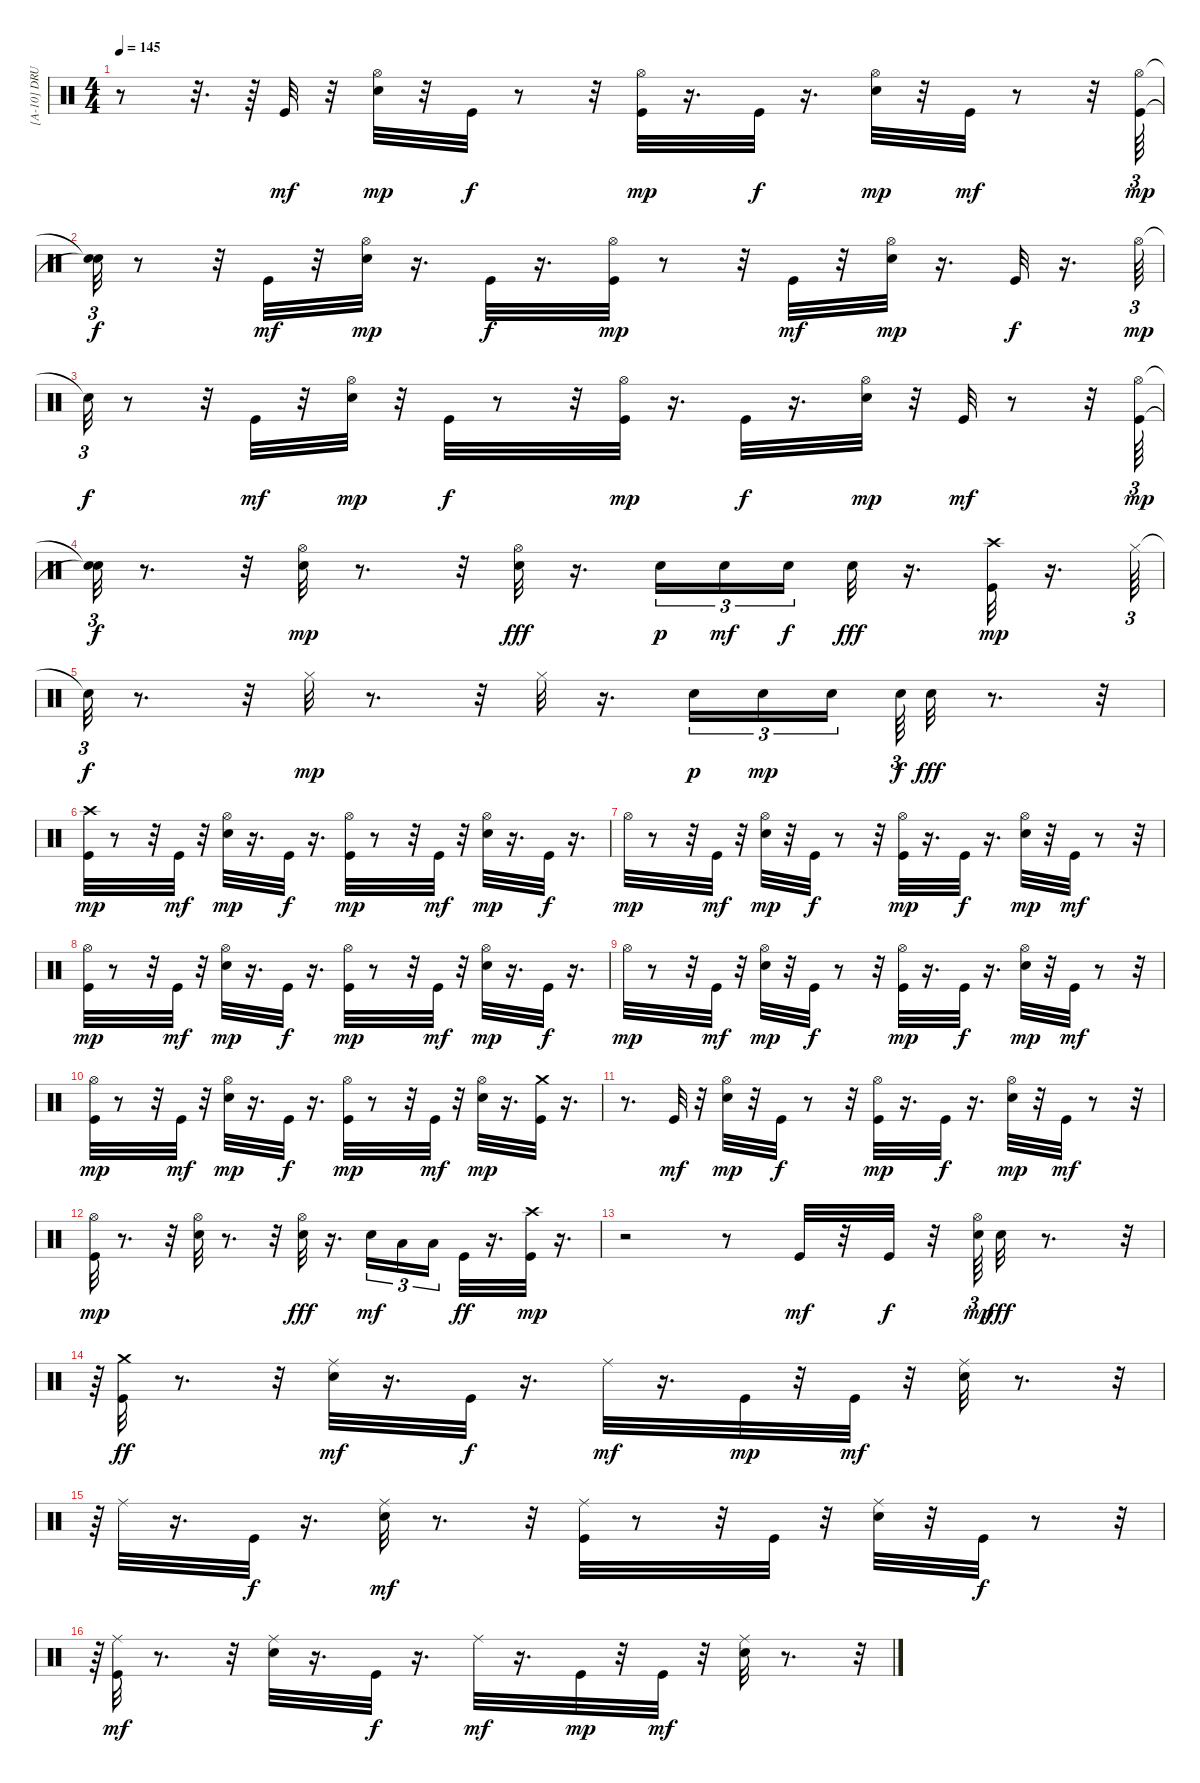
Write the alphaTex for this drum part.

\track ("[A-10] DRUMS" "[A-10] DRU") {instrument percussion}
\staff {score}
\articulation defaults
\ts (4 4)
\tempo 145
\clef neutral
\ks c
r.8{dy mp} r.32{d} r.64 "Kick (hit)".32{dy mf} r.32 ("Snare (hit) 2" "Hi-Hat (open)").32{dy mp} r.32 "Kick (hit)".32{dy f} r.8 r.32 ("Kick (hit)" "Hi-Hat (open)").32{dy mp} r.16{d} "Kick (hit)".32{dy f} r.16{d} ("Snare (hit) 2" "Hi-Hat (open)").32{dy mp} r.32 "Kick (hit)".32{dy mf} r.8 r.32 ("Kick (hit)" "Hi-Hat (open)").64{tu (3 2) dy mp} |
("Snare (hit)"{t} "Snare (hit)"{t}).32{tu (3 2) dy f} r.8 r.32 "Kick (hit)".32{dy mf} r.32 ("Snare (hit) 2" "Hi-Hat (open)").32{dy mp} r.16{d} "Kick (hit)".32{dy f} r.16{d} ("Kick (hit)" "Hi-Hat (open)").32{dy mp} r.8 r.32 "Kick (hit)".32{dy mf} r.32 ("Snare (hit) 2" "Hi-Hat (open)").32{dy mp} r.16{d} "Kick (hit)".32{dy f} r.16{d} "Hi-Hat (open)".64{tu (3 2) dy mp} |
"Snare (hit)"{t}.32{tu (3 2) dy f} r.8 r.32 "Kick (hit)".32{dy mf} r.32 ("Snare (hit) 2" "Hi-Hat (open)").32{dy mp} r.32 "Kick (hit)".32{dy f} r.8 r.32 ("Kick (hit)" "Hi-Hat (open)").32{dy mp} r.16{d} "Kick (hit)".32{dy f} r.16{d} ("Snare (hit) 2" "Hi-Hat (open)").32{dy mp} r.32 "Kick (hit)".32{dy mf} r.8 r.32 ("Kick (hit)" "Hi-Hat (open)").64{tu (3 2) dy mp} |
("Snare (hit)"{t} "Snare (hit)"{t}).32{tu (3 2) dy f} r.8{d} r.32 ("Snare (hit) 2" "Hi-Hat (open)").32{dy mp} r.8{d} r.32 ("Hi-Hat (open)" "Snare (hit) 2").32{dy fff} r.16{d} "Snare (hit) 2".16{tu (3 2) dy p} "Snare (hit) 2".16{tu (3 2) dy mf} "Snare (hit) 2".16{tu (3 2) dy f beam splitsecondary} "Snare (hit) 2".32{dy fff} r.16{d} ("Kick (hit)" "Crash high (hit)").32{dy mp} r.16{d} "Hi-Hat (closed)".64{tu (3 2)} |
"Snare (hit)"{t}.32{tu (3 2) dy f} r.8{d} r.32 "Hi-Hat (closed)".32{dy mp} r.8{d} r.32 "Hi-Hat (closed)".32 r.16{d} "Snare (hit) 2".16{tu (3 2) dy p} "Snare (hit) 2".16{tu (3 2) dy mp} "Snare (hit) 2".16{tu (3 2) beam splitsecondary} "Snare (hit) 2".64{tu (3 2) dy f} "Snare (hit) 2".32{dy fff} r.8{d} r.32 |
("Kick (hit)" "Crash high (hit)").32{dy mp} r.8 r.32 "Kick (hit)".32{dy mf} r.32 ("Snare (hit) 2" "Hi-Hat (open)").32{dy mp} r.16{d} "Kick (hit)".32{dy f} r.16{d} ("Kick (hit)" "Hi-Hat (open)").32{dy mp} r.8 r.32 "Kick (hit)".32{dy mf} r.32 ("Snare (hit) 2" "Hi-Hat (open)").32{dy mp} r.16{d} "Kick (hit)".32{dy f} r.16{d} |
"Hi-Hat (open)".32{dy mp} r.8 r.32 "Kick (hit)".32{dy mf} r.32 ("Snare (hit) 2" "Hi-Hat (open)").32{dy mp} r.32 "Kick (hit)".32{dy f} r.8 r.32 ("Kick (hit)" "Hi-Hat (open)").32{dy mp} r.16{d} "Kick (hit)".32{dy f} r.16{d} ("Snare (hit) 2" "Hi-Hat (open)").32{dy mp} r.32 "Kick (hit)".32{dy mf} r.8 r.32 |
("Kick (hit)" "Hi-Hat (open)").32{dy mp} r.8 r.32 "Kick (hit)".32{dy mf} r.32 ("Snare (hit) 2" "Hi-Hat (open)").32{dy mp} r.16{d} "Kick (hit)".32{dy f} r.16{d} ("Kick (hit)" "Hi-Hat (open)").32{dy mp} r.8 r.32 "Kick (hit)".32{dy mf} r.32 ("Snare (hit) 2" "Hi-Hat (open)").32{dy mp} r.16{d} "Kick (hit)".32{dy f} r.16{d} |
"Hi-Hat (open)".32{dy mp} r.8 r.32 "Kick (hit)".32{dy mf} r.32 ("Snare (hit) 2" "Hi-Hat (open)").32{dy mp} r.32 "Kick (hit)".32{dy f} r.8 r.32 ("Kick (hit)" "Hi-Hat (open)").32{dy mp} r.16{d} "Kick (hit)".32{dy f} r.16{d} ("Snare (hit) 2" "Hi-Hat (open)").32{dy mp} r.32 "Kick (hit)".32{dy mf} r.8 r.32 |
("Kick (hit)" "Hi-Hat (open)").32{dy mp} r.8 r.32 "Kick (hit)".32{dy mf} r.32 ("Snare (hit) 2" "Hi-Hat (open)").32{dy mp} r.16{d} "Kick (hit)".32{dy f} r.16{d} ("Kick (hit)" "Hi-Hat (open)").32{dy mp} r.8 r.32 "Kick (hit)".32{dy mf} r.32 ("Snare (hit) 2" "Hi-Hat (open)").32{dy mp} r.16{d} ("Kick (hit)" "Crash medium (hit)").32 r.16{d} |
r.8{d} "Kick (hit)".32{dy mf} r.32 ("Snare (hit) 2" "Hi-Hat (open)").32{dy mp} r.32 "Kick (hit)".32{dy f} r.8 r.32 ("Kick (hit)" "Hi-Hat (open)").32{dy mp} r.16{d} "Kick (hit)".32{dy f} r.16{d} ("Snare (hit) 2" "Hi-Hat (open)").32{dy mp} r.32 "Kick (hit)".32{dy mf} r.8 r.32 |
("Kick (hit)" "Hi-Hat (open)").32{dy mp} r.8{d} r.32 ("Snare (hit) 2" "Hi-Hat (open)").32 r.8{d} r.32 ("Hi-Hat (open)" "Snare (hit) 2").32{dy fff} r.16{d} "Snare (hit) 2".16{tu (3 2) dy mf} "Low Tom (hit)".16{tu (3 2)} "Low Floor Tom (hit)".16{tu (3 2)} "Kick (hit)".32{dy ff} r.16{d} ("Kick (hit)" "Crash high (hit)").32{dy mp} r.16{d} |
r.2 r.8 "Kick (hit)".32{dy mf} r.32 "Kick (hit)".32{dy f} r.32 ("Snare (hit) 2" "Hi-Hat (open)").64{tu (3 2) dy mp} "Snare (hit) 2".32{dy fff} r.8{d} r.32{tu (3 2)} |
r.64{tu (3 2)} ("Crash medium (hit)" "Kick (hit)").32{dy ff} r.8{d} r.32 ("Snare (hit) 2" "Ride (middle)").32{dy mf} r.16{d} "Kick (hit)".32{dy f} r.16{d} "Ride (middle)".32{dy mf} r.16{d} "Kick (hit)".32{dy mp} r.32 "Kick (hit)".32{dy mf} r.32 ("Snare (hit) 2" "Ride (middle)").32 r.8{d} r.32{tu (3 2)} |
r.64{tu (3 2)} "Ride (middle)".32 r.16{d} "Kick (hit)".32{dy f} r.16{d} ("Snare (hit) 2" "Ride (middle)").32{dy mf} r.8{d} r.32 ("Kick (hit)" "Ride (middle)").32 r.8 r.32 "Kick (hit)".32 r.32 ("Snare (hit) 2" "Ride (middle)").32 r.32 "Kick (hit)".32{dy f} r.8 r.32{tu (3 2)} |
r.64{tu (3 2)} ("Kick (hit)" "Ride (middle)").32{dy mf} r.8{d} r.32 ("Snare (hit) 2" "Ride (middle)").32 r.16{d} "Kick (hit)".32{dy f} r.16{d} "Ride (middle)".32{dy mf} r.16{d} "Kick (hit)".32{dy mp} r.32 "Kick (hit)".32{dy mf} r.32 ("Snare (hit) 2" "Ride (middle)").32 r.8{d} r.32{tu (3 2)}
